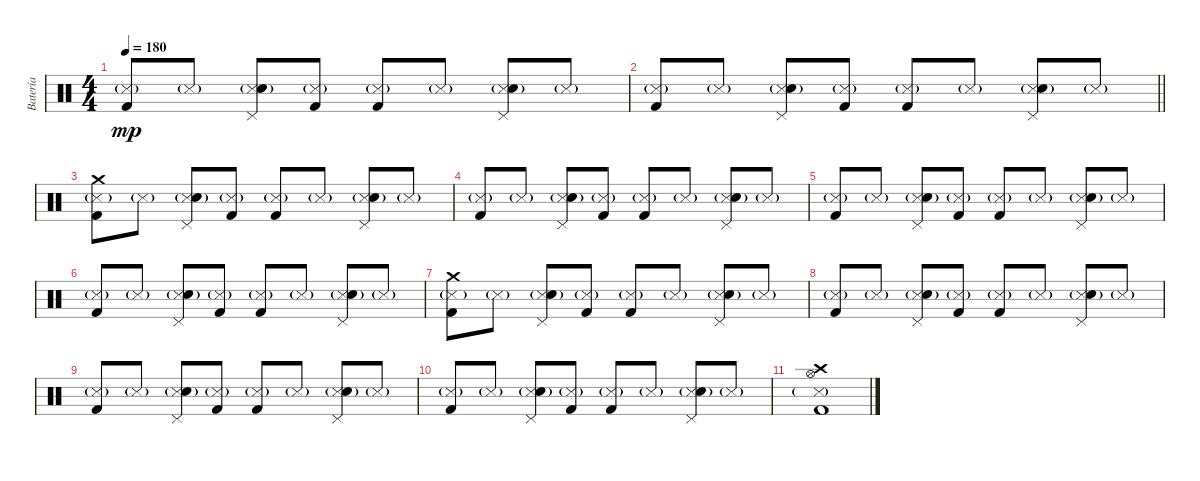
\track ("Batería" "Batería") {instrument percussion}
\staff {score}
\articulation defaults
\ts (4 4)
\tempo 180
\clef neutral
\ks c
("Snare (side stick) 3"{g} "Kick (hit) 2").8{dy mp} "Snare (side stick) 3"{g}.8 ("Snare (side stick) 3"{g} "Electric Snare (hit)" "Pedal Hi-Hat (hit)").8 ("Snare (side stick) 3"{g} "Kick (hit) 2").8 ("Snare (side stick) 3"{g} "Kick (hit) 2").8 "Snare (side stick) 3"{g}.8 ("Snare (side stick) 3"{g} "Electric Snare (hit)" "Pedal Hi-Hat (hit)").8 "Snare (side stick) 3"{g}.8 |
\barLineRight lightlight
("Snare (side stick) 3"{g} "Kick (hit) 2").8 "Snare (side stick) 3"{g}.8 ("Snare (side stick) 3"{g} "Electric Snare (hit)" "Pedal Hi-Hat (hit)").8 ("Snare (side stick) 3"{g} "Kick (hit) 2").8 ("Snare (side stick) 3"{g} "Kick (hit) 2").8 "Snare (side stick) 3"{g}.8 ("Snare (side stick) 3"{g} "Electric Snare (hit)" "Pedal Hi-Hat (hit)").8 "Snare (side stick) 3"{g}.8 |
\section ("" "")
("Snare (side stick) 3"{g} "Kick (hit) 2" "Crash medium (hit)").8 "Snare (side stick) 3"{g}.8 ("Snare (side stick) 3"{g} "Electric Snare (hit)" "Pedal Hi-Hat (hit)").8 ("Snare (side stick) 3"{g} "Kick (hit) 2").8 ("Snare (side stick) 3"{g} "Kick (hit) 2").8 "Snare (side stick) 3"{g}.8 ("Snare (side stick) 3"{g} "Electric Snare (hit)" "Pedal Hi-Hat (hit)").8 "Snare (side stick) 3"{g}.8 |
("Snare (side stick) 3"{g} "Kick (hit) 2").8 "Snare (side stick) 3"{g}.8 ("Snare (side stick) 3"{g} "Electric Snare (hit)" "Pedal Hi-Hat (hit)").8 ("Snare (side stick) 3"{g} "Kick (hit) 2").8 ("Snare (side stick) 3"{g} "Kick (hit) 2").8 "Snare (side stick) 3"{g}.8 ("Snare (side stick) 3"{g} "Electric Snare (hit)" "Pedal Hi-Hat (hit)").8 "Snare (side stick) 3"{g}.8 |
("Snare (side stick) 3"{g} "Kick (hit) 2").8 "Snare (side stick) 3"{g}.8 ("Snare (side stick) 3"{g} "Electric Snare (hit)" "Pedal Hi-Hat (hit)").8 ("Snare (side stick) 3"{g} "Kick (hit) 2").8 ("Snare (side stick) 3"{g} "Kick (hit) 2").8 "Snare (side stick) 3"{g}.8 ("Snare (side stick) 3"{g} "Electric Snare (hit)" "Pedal Hi-Hat (hit)").8 "Snare (side stick) 3"{g}.8 |
("Snare (side stick) 3"{g} "Kick (hit) 2").8 "Snare (side stick) 3"{g}.8 ("Snare (side stick) 3"{g} "Electric Snare (hit)" "Pedal Hi-Hat (hit)").8 ("Snare (side stick) 3"{g} "Kick (hit) 2").8 ("Snare (side stick) 3"{g} "Kick (hit) 2").8 "Snare (side stick) 3"{g}.8 ("Snare (side stick) 3"{g} "Electric Snare (hit)" "Pedal Hi-Hat (hit)").8 "Snare (side stick) 3"{g}.8 |
("Snare (side stick) 3"{g} "Kick (hit) 2" "Crash medium (hit)").8 "Snare (side stick) 3"{g}.8 ("Snare (side stick) 3"{g} "Electric Snare (hit)" "Pedal Hi-Hat (hit)").8 ("Snare (side stick) 3"{g} "Kick (hit) 2").8 ("Snare (side stick) 3"{g} "Kick (hit) 2").8 "Snare (side stick) 3"{g}.8 ("Snare (side stick) 3"{g} "Electric Snare (hit)" "Pedal Hi-Hat (hit)").8 "Snare (side stick) 3"{g}.8 |
("Snare (side stick) 3"{g} "Kick (hit) 2").8 "Snare (side stick) 3"{g}.8 ("Snare (side stick) 3"{g} "Electric Snare (hit)" "Pedal Hi-Hat (hit)").8 ("Snare (side stick) 3"{g} "Kick (hit) 2").8 ("Snare (side stick) 3"{g} "Kick (hit) 2").8 "Snare (side stick) 3"{g}.8 ("Snare (side stick) 3"{g} "Electric Snare (hit)" "Pedal Hi-Hat (hit)").8 "Snare (side stick) 3"{g}.8 |
("Snare (side stick) 3"{g} "Kick (hit) 2").8 "Snare (side stick) 3"{g}.8 ("Snare (side stick) 3"{g} "Electric Snare (hit)" "Pedal Hi-Hat (hit)").8 ("Snare (side stick) 3"{g} "Kick (hit) 2").8 ("Snare (side stick) 3"{g} "Kick (hit) 2").8 "Snare (side stick) 3"{g}.8 ("Snare (side stick) 3"{g} "Electric Snare (hit)" "Pedal Hi-Hat (hit)").8 "Snare (side stick) 3"{g}.8 |
("Snare (side stick) 3"{g} "Kick (hit) 2").8 "Snare (side stick) 3"{g}.8 ("Snare (side stick) 3"{g} "Electric Snare (hit)" "Pedal Hi-Hat (hit)").8 ("Snare (side stick) 3"{g} "Kick (hit) 2").8 ("Snare (side stick) 3"{g} "Kick (hit) 2").8 "Snare (side stick) 3"{g}.8 ("Snare (side stick) 3"{g} "Electric Snare (hit)" "Pedal Hi-Hat (hit)").8 "Snare (side stick) 3"{g}.8 |
("Snare (side stick) 3"{g} "Kick (hit) 2" "Hi-Hat (open)" "Crash high (hit)").1
